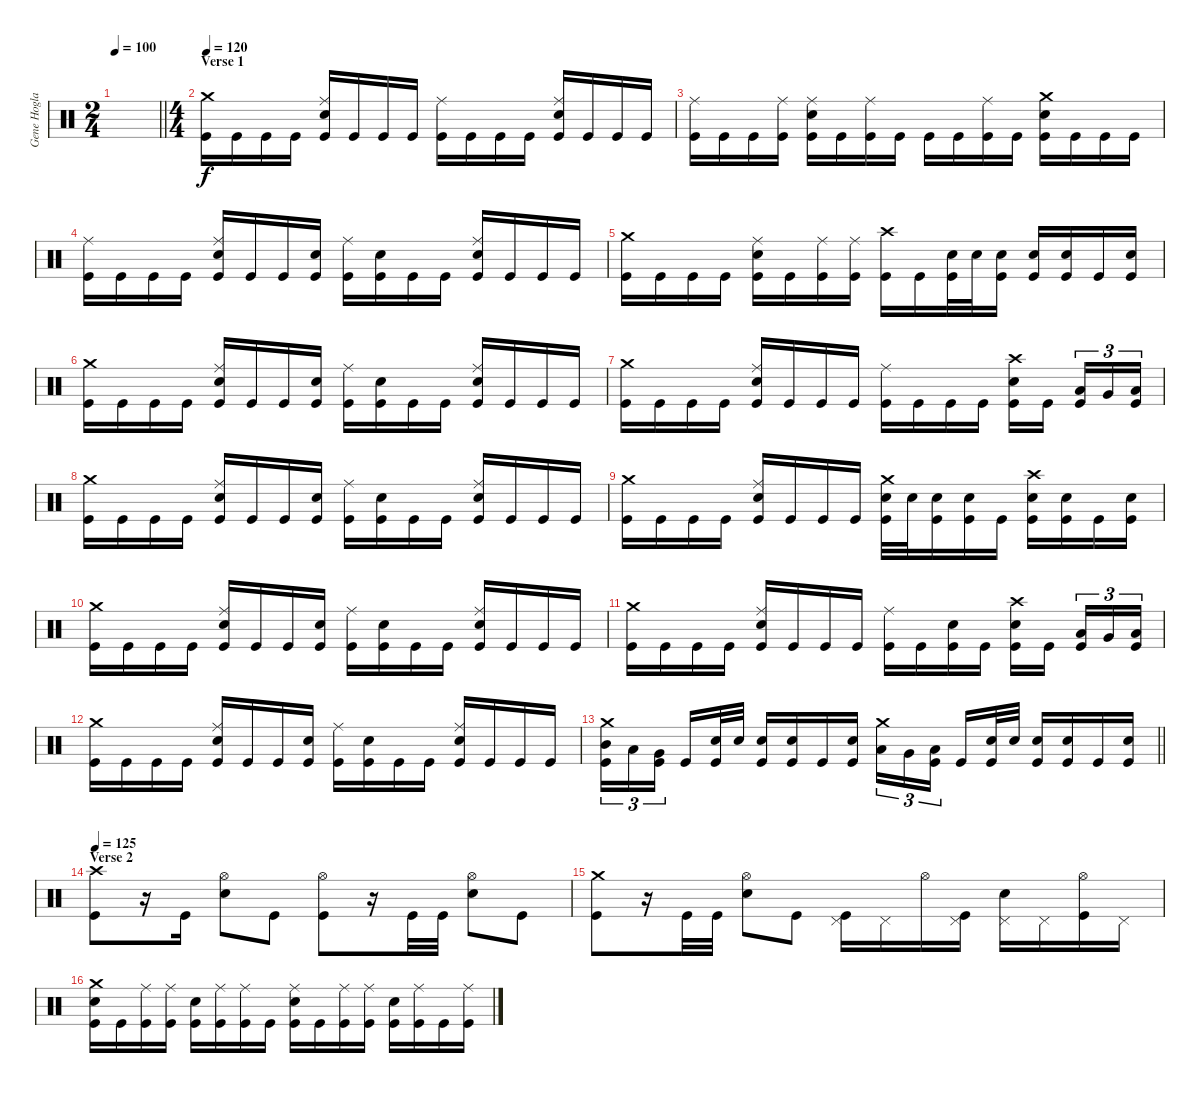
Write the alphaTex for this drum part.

\track ("Gene Hoglan" "Gene Hogla") {instrument percussion}
\staff {score}
\articulation defaults
\ts (2 4)
\tempo 100
\clef neutral
\barLineRight lightlight
\ks c
|
\ts (4 4)
\section ("" "Verse 1")
\tempo 120
("Crash medium (hit)" "Kick (hit)").16 "Kick (hit)".16 "Kick (hit)".16 "Kick (hit)".16 ("Ride (middle)" "Electric Snare (hit)" "Kick (hit)").16 "Kick (hit)".16 "Kick (hit)".16 "Kick (hit)".16 ("Ride (middle)" "Kick (hit)").16 "Kick (hit)".16 "Kick (hit)".16 "Kick (hit)".16 ("Ride (middle)" "Electric Snare (hit)" "Kick (hit)").16 "Kick (hit)".16 "Kick (hit)".16 "Kick (hit)".16 |
("Ride (middle)" "Kick (hit)").16 "Kick (hit)".16 "Kick (hit)".16 ("Ride (middle)" "Kick (hit)").16 ("Ride (middle)" "Electric Snare (hit)" "Kick (hit)").16 "Kick (hit)".16 ("Ride (middle)" "Kick (hit)").16 "Kick (hit)".16 "Kick (hit)".16 "Kick (hit)".16 ("Ride (middle)" "Kick (hit)").16 "Kick (hit)".16 ("Crash medium (hit)" "Electric Snare (hit)" "Kick (hit)").16 "Kick (hit)".16 "Kick (hit)".16 "Kick (hit)".16 |
("Ride (middle)" "Kick (hit)").16 "Kick (hit)".16 "Kick (hit)".16 "Kick (hit)".16 ("Ride (middle)" "Electric Snare (hit)" "Kick (hit)").16 "Kick (hit)".16 "Kick (hit)".16 ("Electric Snare (hit)" "Kick (hit)").16 ("Ride (middle)" "Kick (hit)").16 ("Electric Snare (hit)" "Kick (hit)").16 "Kick (hit)".16 "Kick (hit)".16 ("Ride (middle)" "Electric Snare (hit)" "Kick (hit)").16 "Kick (hit)".16 "Kick (hit)".16 "Kick (hit)".16 |
("Crash medium (hit)" "Kick (hit)").16 "Kick (hit)".16 "Kick (hit)".16 "Kick (hit)".16 ("Ride (middle)" "Electric Snare (hit)" "Kick (hit)").16 "Kick (hit)".16 ("Ride (middle)" "Kick (hit)").16 ("Ride (middle)" "Kick (hit)").16 ("Crash high (hit)" "Kick (hit)").16 "Kick (hit)".16 ("Electric Snare (hit)" "Kick (hit)").32 "Electric Snare (hit)".32 ("Electric Snare (hit)" "Kick (hit)").16 ("Electric Snare (hit)" "Kick (hit)").16 ("Electric Snare (hit)" "Kick (hit)").16 "Kick (hit)".16 ("Electric Snare (hit)" "Kick (hit)").16 |
("Crash medium (hit)" "Kick (hit)").16 "Kick (hit)".16 "Kick (hit)".16 "Kick (hit)".16 ("Ride (middle)" "Electric Snare (hit)" "Kick (hit)").16 "Kick (hit)".16 "Kick (hit)".16 ("Electric Snare (hit)" "Kick (hit)").16 ("Ride (middle)" "Kick (hit)").16 ("Electric Snare (hit)" "Kick (hit)").16 "Kick (hit)".16 "Kick (hit)".16 ("Ride (middle)" "Electric Snare (hit)" "Kick (hit)").16 "Kick (hit)".16 "Kick (hit)".16 "Kick (hit)".16 |
("Crash medium (hit)" "Kick (hit)").16 "Kick (hit)".16 "Kick (hit)".16 "Kick (hit)".16 ("Ride (middle)" "Electric Snare (hit)" "Kick (hit)").16 "Kick (hit)".16 "Kick (hit)".16 "Kick (hit)".16 ("Ride (middle)" "Kick (hit)").16 "Kick (hit)".16 "Kick (hit)".16 "Kick (hit)".16 ("Crash high (hit)" "Electric Snare (hit)" "Kick (hit)").16 "Kick (hit)".16{beam splitsecondary} ("Low Tom (hit)" "Kick (hit)").16{tu (3 2)} "Very Low Tom (hit)".16{tu (3 2)} ("Low Floor Tom (hit)" "Kick (hit)").16{tu (3 2)} |
("Crash medium (hit)" "Kick (hit)").16 "Kick (hit)".16 "Kick (hit)".16 "Kick (hit)".16 ("Ride (middle)" "Electric Snare (hit)" "Kick (hit)").16 "Kick (hit)".16 "Kick (hit)".16 ("Electric Snare (hit)" "Kick (hit)").16 ("Ride (middle)" "Kick (hit)").16 ("Electric Snare (hit)" "Kick (hit)").16 "Kick (hit)".16 "Kick (hit)".16 ("Ride (middle)" "Electric Snare (hit)" "Kick (hit)").16 "Kick (hit)".16 "Kick (hit)".16 "Kick (hit)".16 |
("Crash medium (hit)" "Kick (hit)").16 "Kick (hit)".16 "Kick (hit)".16 "Kick (hit)".16 ("Ride (middle)" "Electric Snare (hit)" "Kick (hit)").16 "Kick (hit)".16 "Kick (hit)".16 "Kick (hit)".16 ("Crash medium (hit)" "Electric Snare (hit)" "Kick (hit)").32 "Electric Snare (hit)".32 ("Electric Snare (hit)" "Kick (hit)").16 ("Electric Snare (hit)" "Kick (hit)").16 "Kick (hit)".16 ("Crash high (hit)" "Electric Snare (hit)" "Kick (hit)").16 ("Electric Snare (hit)" "Kick (hit)").16 "Kick (hit)".16 ("Electric Snare (hit)" "Kick (hit)").16 |
("Crash medium (hit)" "Kick (hit)").16 "Kick (hit)".16 "Kick (hit)".16 "Kick (hit)".16 ("Ride (middle)" "Electric Snare (hit)" "Kick (hit)").16 "Kick (hit)".16 "Kick (hit)".16 ("Electric Snare (hit)" "Kick (hit)").16 ("Ride (middle)" "Kick (hit)").16 ("Electric Snare (hit)" "Kick (hit)").16 "Kick (hit)".16 "Kick (hit)".16 ("Ride (middle)" "Electric Snare (hit)" "Kick (hit)").16 "Kick (hit)".16 "Kick (hit)".16 "Kick (hit)".16 |
("Crash medium (hit)" "Kick (hit)").16 "Kick (hit)".16 "Kick (hit)".16 "Kick (hit)".16 ("Ride (middle)" "Electric Snare (hit)" "Kick (hit)").16 "Kick (hit)".16 "Kick (hit)".16 "Kick (hit)".16 ("Ride (middle)" "Kick (hit)").16 "Kick (hit)".16 ("Electric Snare (hit)" "Kick (hit)").16 "Kick (hit)".16 ("Crash high (hit)" "Electric Snare (hit)" "Kick (hit)").16 "Kick (hit)".16{beam splitsecondary} ("Low Tom (hit)" "Kick (hit)").16{tu (3 2)} "Very Low Tom (hit)".16{tu (3 2)} ("Low Floor Tom (hit)" "Kick (hit)").16{tu (3 2)} |
("Crash medium (hit)" "Kick (hit)").16 "Kick (hit)".16 "Kick (hit)".16 "Kick (hit)".16 ("Ride (middle)" "Electric Snare (hit)" "Kick (hit)").16 "Kick (hit)".16 "Kick (hit)".16 ("Electric Snare (hit)" "Kick (hit)").16 ("Ride (middle)" "Kick (hit)").16 ("Electric Snare (hit)" "Kick (hit)").16 "Kick (hit)".16 "Kick (hit)".16 ("Ride (middle)" "Electric Snare (hit)" "Kick (hit)").16 "Kick (hit)".16 "Kick (hit)".16 "Kick (hit)".16 |
\barLineRight lightlight
("Crash medium (hit)" "Mid Tom (hit)" "Kick (hit)").16{tu (3 2)} "Low Tom (hit)".16{tu (3 2)} ("Very Low Tom (hit)" "Kick (hit)").16{tu (3 2) beam splitsecondary} "Kick (hit)".16 ("Electric Snare (hit)" "Kick (hit)").32 "Electric Snare (hit)".32 ("Electric Snare (hit)" "Kick (hit)").16 ("Electric Snare (hit)" "Kick (hit)").16 "Kick (hit)".16 ("Electric Snare (hit)" "Kick (hit)").16 ("Crash medium (hit)" "Low Tom (hit)").16{tu (3 2)} "Very Low Tom (hit)".16{tu (3 2)} ("Low Floor Tom (hit)" "Kick (hit)").16{tu (3 2) beam splitsecondary} "Kick (hit)".16 ("Electric Snare (hit)" "Kick (hit)").32 "Electric Snare (hit)".32 ("Electric Snare (hit)" "Kick (hit)").16 ("Electric Snare (hit)" "Kick (hit)").16 "Kick (hit)".16 ("Electric Snare (hit)" "Kick (hit)").16 |
\section ("" "Verse 2")
\tempo 125
("Crash high (hit)" "Kick (hit)").8 r.16 "Kick (hit)".16 ("Hi-Hat (open)" "Electric Snare (hit)").8 "Kick (hit)".8 ("Hi-Hat (open)" "Kick (hit)").8 r.16 "Kick (hit)".32 "Kick (hit)".32 ("Hi-Hat (open)" "Electric Snare (hit)").8 "Kick (hit)".8 |
("Crash medium (hit)" "Kick (hit)").8 r.16 "Kick (hit)".32 "Kick (hit)".32 ("Hi-Hat (open)" "Electric Snare (hit)").8 "Kick (hit)".8 ("Pedal Hi-Hat (hit)" "Kick (hit)").16 "Pedal Hi-Hat (hit)".16 "Hi-Hat (open)".16 ("Pedal Hi-Hat (hit)" "Kick (hit)").16 ("Pedal Hi-Hat (hit)" "Electric Snare (hit)").16 "Pedal Hi-Hat (hit)".16 ("Hi-Hat (open)" "Kick (hit)").16 "Pedal Hi-Hat (hit)".16 |
("Crash medium (hit)" "Electric Snare (hit)" "Kick (hit)").16 "Kick (hit)".16 ("Ride (middle)" "Kick (hit)").16 ("Ride (middle)" "Kick (hit)").16 ("Electric Snare (hit)" "Kick (hit)").16 ("Ride (middle)" "Kick (hit)").16 ("Ride (middle)" "Kick (hit)").16 "Kick (hit)".16 ("Ride (middle)" "Electric Snare (hit)" "Kick (hit)").16 "Kick (hit)".16 ("Ride (middle)" "Kick (hit)").16 ("Ride (middle)" "Kick (hit)").16 ("Electric Snare (hit)" "Kick (hit)").16 ("Ride (middle)" "Kick (hit)").16 "Kick (hit)".16 ("Ride (middle)" "Kick (hit)").16
